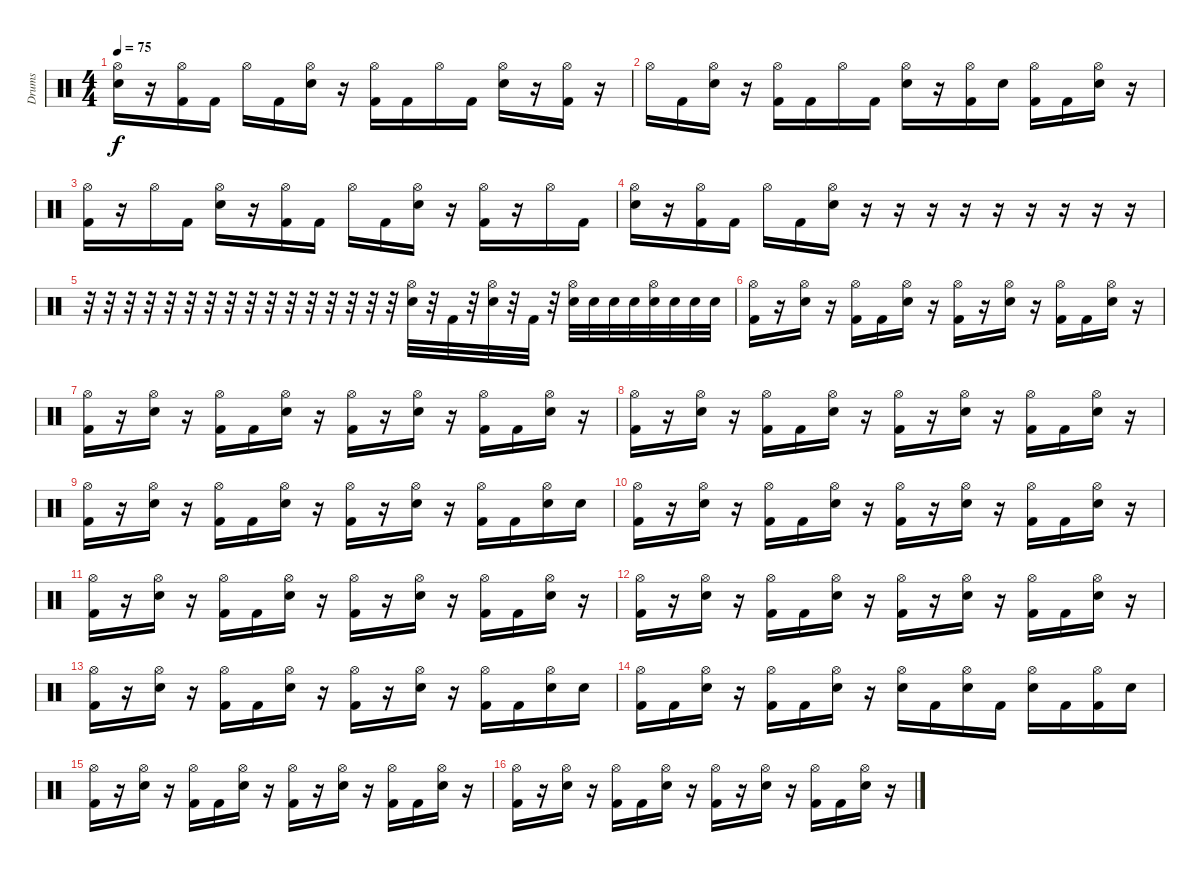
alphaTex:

\track ("Drums" "Drums") {instrument percussion}
\staff {score}
\articulation defaults
\ts (4 4)
\tempo 75
\clef neutral
\ks c
("Electric Snare (hit)" "Hi-Hat (open)").16{dy f} r.16 ("Kick (hit) 2" "Hi-Hat (open)").16 "Kick (hit) 2".16 "Hi-Hat (open)".16 "Kick (hit) 2".16 ("Electric Snare (hit)" "Hi-Hat (open)").16 r.16 ("Kick (hit) 2" "Hi-Hat (open)").16 "Kick (hit) 2".16 "Hi-Hat (open)".16 "Kick (hit) 2".16 ("Electric Snare (hit)" "Hi-Hat (open)").16 r.16 ("Kick (hit) 2" "Hi-Hat (open)").16 r.16 |
"Hi-Hat (open)".16 "Kick (hit) 2".16 ("Electric Snare (hit)" "Hi-Hat (open)").16 r.16 ("Kick (hit) 2" "Hi-Hat (open)").16 "Kick (hit) 2".16 "Hi-Hat (open)".16 "Kick (hit) 2".16 ("Electric Snare (hit)" "Hi-Hat (open)").16 r.16 ("Kick (hit) 2" "Hi-Hat (open)").16 "Electric Snare (hit)".16 ("Kick (hit) 2" "Hi-Hat (open)").16 "Kick (hit) 2".16 ("Electric Snare (hit)" "Hi-Hat (open)").16 r.16 |
("Kick (hit) 2" "Hi-Hat (open)").16 r.16 "Hi-Hat (open)".16 "Kick (hit) 2".16 ("Electric Snare (hit)" "Hi-Hat (open)").16 r.16 ("Kick (hit) 2" "Hi-Hat (open)").16 "Kick (hit) 2".16 "Hi-Hat (open)".16 "Kick (hit) 2".16 ("Electric Snare (hit)" "Hi-Hat (open)").16 r.16 ("Kick (hit) 2" "Hi-Hat (open)").16 r.16 "Hi-Hat (open)".16 "Kick (hit) 2".16 |
("Electric Snare (hit)" "Hi-Hat (open)").16 r.16 ("Kick (hit) 2" "Hi-Hat (open)").16 "Kick (hit) 2".16 "Hi-Hat (open)".16 "Kick (hit) 2".16 ("Electric Snare (hit)" "Hi-Hat (open)").16 r.16 r.16 r.16 r.16 r.16 r.16 r.16 r.16 r.16 |
r.32 r.32 r.32 r.32 r.32 r.32 r.32 r.32 r.32 r.32 r.32 r.32 r.32 r.32 r.32 r.32 ("Electric Snare (hit)" "Hi-Hat (open)").32 r.32 "Kick (hit) 2".32 r.32 ("Electric Snare (hit)" "Hi-Hat (open)").32 r.32 "Kick (hit) 2".32 r.32 ("Electric Snare (hit)" "Hi-Hat (open)").32 "Electric Snare (hit)".32 "Electric Snare (hit)".32 "Electric Snare (hit)".32 ("Electric Snare (hit)" "Hi-Hat (open)").32 "Electric Snare (hit)".32 "Electric Snare (hit)".32 "Electric Snare (hit)".32 |
("Kick (hit) 2" "Hi-Hat (open)").16 r.16 ("Electric Snare (hit)" "Hi-Hat (open)").16 r.16 ("Kick (hit) 2" "Hi-Hat (open)").16 "Kick (hit) 2".16 ("Electric Snare (hit)" "Hi-Hat (open)").16 r.16 ("Kick (hit) 2" "Hi-Hat (open)").16 r.16 ("Electric Snare (hit)" "Hi-Hat (open)").16 r.16 ("Kick (hit) 2" "Hi-Hat (open)").16 "Kick (hit) 2".16 ("Electric Snare (hit)" "Hi-Hat (open)").16 r.16 |
("Kick (hit) 2" "Hi-Hat (open)").16 r.16 ("Electric Snare (hit)" "Hi-Hat (open)").16 r.16 ("Kick (hit) 2" "Hi-Hat (open)").16 "Kick (hit) 2".16 ("Electric Snare (hit)" "Hi-Hat (open)").16 r.16 ("Kick (hit) 2" "Hi-Hat (open)").16 r.16 ("Electric Snare (hit)" "Hi-Hat (open)").16 r.16 ("Kick (hit) 2" "Hi-Hat (open)").16 "Kick (hit) 2".16 ("Electric Snare (hit)" "Hi-Hat (open)").16 r.16 |
("Kick (hit) 2" "Hi-Hat (open)").16 r.16 ("Electric Snare (hit)" "Hi-Hat (open)").16 r.16 ("Kick (hit) 2" "Hi-Hat (open)").16 "Kick (hit) 2".16 ("Electric Snare (hit)" "Hi-Hat (open)").16 r.16 ("Kick (hit) 2" "Hi-Hat (open)").16 r.16 ("Electric Snare (hit)" "Hi-Hat (open)").16 r.16 ("Kick (hit) 2" "Hi-Hat (open)").16 "Kick (hit) 2".16 ("Electric Snare (hit)" "Hi-Hat (open)").16 r.16 |
("Kick (hit) 2" "Hi-Hat (open)").16 r.16 ("Electric Snare (hit)" "Hi-Hat (open)").16 r.16 ("Kick (hit) 2" "Hi-Hat (open)").16 "Kick (hit) 2".16 ("Electric Snare (hit)" "Hi-Hat (open)").16 r.16 ("Kick (hit) 2" "Hi-Hat (open)").16 r.16 ("Electric Snare (hit)" "Hi-Hat (open)").16 r.16 ("Kick (hit) 2" "Hi-Hat (open)").16 "Kick (hit) 2".16 ("Electric Snare (hit)" "Hi-Hat (open)").16 "Electric Snare (hit)".16 |
("Kick (hit) 2" "Hi-Hat (open)").16 r.16 ("Electric Snare (hit)" "Hi-Hat (open)").16 r.16 ("Kick (hit) 2" "Hi-Hat (open)").16 "Kick (hit) 2".16 ("Electric Snare (hit)" "Hi-Hat (open)").16 r.16 ("Kick (hit) 2" "Hi-Hat (open)").16 r.16 ("Electric Snare (hit)" "Hi-Hat (open)").16 r.16 ("Kick (hit) 2" "Hi-Hat (open)").16 "Kick (hit) 2".16 ("Electric Snare (hit)" "Hi-Hat (open)").16 r.16 |
("Kick (hit) 2" "Hi-Hat (open)").16 r.16 ("Electric Snare (hit)" "Hi-Hat (open)").16 r.16 ("Kick (hit) 2" "Hi-Hat (open)").16 "Kick (hit) 2".16 ("Electric Snare (hit)" "Hi-Hat (open)").16 r.16 ("Kick (hit) 2" "Hi-Hat (open)").16 r.16 ("Electric Snare (hit)" "Hi-Hat (open)").16 r.16 ("Kick (hit) 2" "Hi-Hat (open)").16 "Kick (hit) 2".16 ("Electric Snare (hit)" "Hi-Hat (open)").16 r.16 |
("Kick (hit) 2" "Hi-Hat (open)").16 r.16 ("Electric Snare (hit)" "Hi-Hat (open)").16 r.16 ("Kick (hit) 2" "Hi-Hat (open)").16 "Kick (hit) 2".16 ("Electric Snare (hit)" "Hi-Hat (open)").16 r.16 ("Kick (hit) 2" "Hi-Hat (open)").16 r.16 ("Electric Snare (hit)" "Hi-Hat (open)").16 r.16 ("Kick (hit) 2" "Hi-Hat (open)").16 "Kick (hit) 2".16 ("Electric Snare (hit)" "Hi-Hat (open)").16 r.16 |
("Kick (hit) 2" "Hi-Hat (open)").16 r.16 ("Electric Snare (hit)" "Hi-Hat (open)").16 r.16 ("Kick (hit) 2" "Hi-Hat (open)").16 "Kick (hit) 2".16 ("Electric Snare (hit)" "Hi-Hat (open)").16 r.16 ("Kick (hit) 2" "Hi-Hat (open)").16 r.16 ("Electric Snare (hit)" "Hi-Hat (open)").16 r.16 ("Kick (hit) 2" "Hi-Hat (open)").16 "Kick (hit) 2".16 ("Electric Snare (hit)" "Hi-Hat (open)").16 "Electric Snare (hit)".16 |
("Kick (hit) 2" "Hi-Hat (open)").16 "Kick (hit) 2".16 ("Electric Snare (hit)" "Hi-Hat (open)").16 r.16 ("Kick (hit) 2" "Hi-Hat (open)").16 "Kick (hit) 2".16 ("Electric Snare (hit)" "Hi-Hat (open)").16 r.16 ("Electric Snare (hit)" "Hi-Hat (open)").16 "Kick (hit) 2".16 ("Electric Snare (hit)" "Hi-Hat (open)").16 "Kick (hit) 2".16 ("Electric Snare (hit)" "Hi-Hat (open)").16 "Kick (hit) 2".16 ("Kick (hit) 2" "Hi-Hat (open)").16 "Electric Snare (hit)".16 |
("Kick (hit) 2" "Hi-Hat (open)").16 r.16 ("Electric Snare (hit)" "Hi-Hat (open)").16 r.16 ("Kick (hit) 2" "Hi-Hat (open)").16 "Kick (hit) 2".16 ("Electric Snare (hit)" "Hi-Hat (open)").16 r.16 ("Kick (hit) 2" "Hi-Hat (open)").16 r.16 ("Electric Snare (hit)" "Hi-Hat (open)").16 r.16 ("Kick (hit) 2" "Hi-Hat (open)").16 "Kick (hit) 2".16 ("Electric Snare (hit)" "Hi-Hat (open)").16 r.16 |
("Kick (hit) 2" "Hi-Hat (open)").16 r.16 ("Electric Snare (hit)" "Hi-Hat (open)").16 r.16 ("Kick (hit) 2" "Hi-Hat (open)").16 "Kick (hit) 2".16 ("Electric Snare (hit)" "Hi-Hat (open)").16 r.16 ("Kick (hit) 2" "Hi-Hat (open)").16 r.16 ("Electric Snare (hit)" "Hi-Hat (open)").16 r.16 ("Kick (hit) 2" "Hi-Hat (open)").16 "Kick (hit) 2".16 ("Electric Snare (hit)" "Hi-Hat (open)").16 r.16
